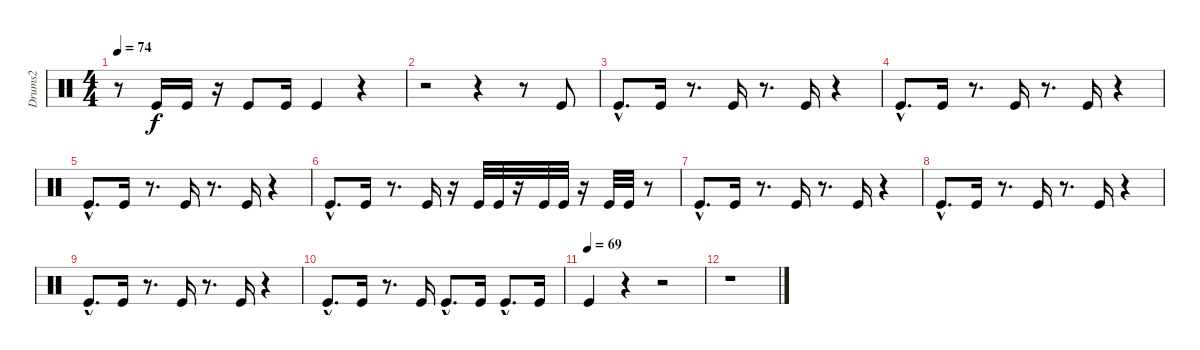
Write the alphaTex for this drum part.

\track ("Drums2" "Drums2") {instrument percussion}
\staff {score}
\articulation defaults
\ts (4 4)
\tempo 74
\clef neutral
\ks c
r.8{dy f} "Kick (hit)".16 "Kick (hit)".16 r.16 "Kick (hit)".8 "Kick (hit)".16 "Kick (hit)".4 r.4 |
r.2 r.4 r.8 "Kick (hit)".8 |
"Kick (hit)"{hac}.8{d} "Kick (hit)".16 r.8{d} "Kick (hit)".16 r.8{d} "Kick (hit)".16 r.4 |
"Kick (hit)"{hac}.8{d} "Kick (hit)".16 r.8{d} "Kick (hit)".16 r.8{d} "Kick (hit)".16 r.4 |
"Kick (hit)"{hac}.8{d} "Kick (hit)".16 r.8{d} "Kick (hit)".16 r.8{d} "Kick (hit)".16 r.4 |
"Kick (hit)"{hac}.8{d} "Kick (hit)".16 r.8{d} "Kick (hit)".16 r.16 "Kick (hit)".32 "Kick (hit)".32 r.16 "Kick (hit)".32 "Kick (hit)".32 r.16 "Kick (hit)".32 "Kick (hit)".32 r.8 |
"Kick (hit)"{hac}.8{d} "Kick (hit)".16 r.8{d} "Kick (hit)".16 r.8{d} "Kick (hit)".16 r.4 |
"Kick (hit)"{hac}.8{d} "Kick (hit)".16 r.8{d} "Kick (hit)".16 r.8{d} "Kick (hit)".16 r.4 |
"Kick (hit)"{hac}.8{d} "Kick (hit)".16 r.8{d} "Kick (hit)".16 r.8{d} "Kick (hit)".16 r.4 |
"Kick (hit)"{hac}.8{d} "Kick (hit)".16 r.8{d} "Kick (hit)".16 "Kick (hit)"{hac}.8{d} "Kick (hit)".16 "Kick (hit)"{hac}.8{d} "Kick (hit)".16 |
\tempo (69)
"Kick (hit)".4 r.4 r.2 |
r.1
